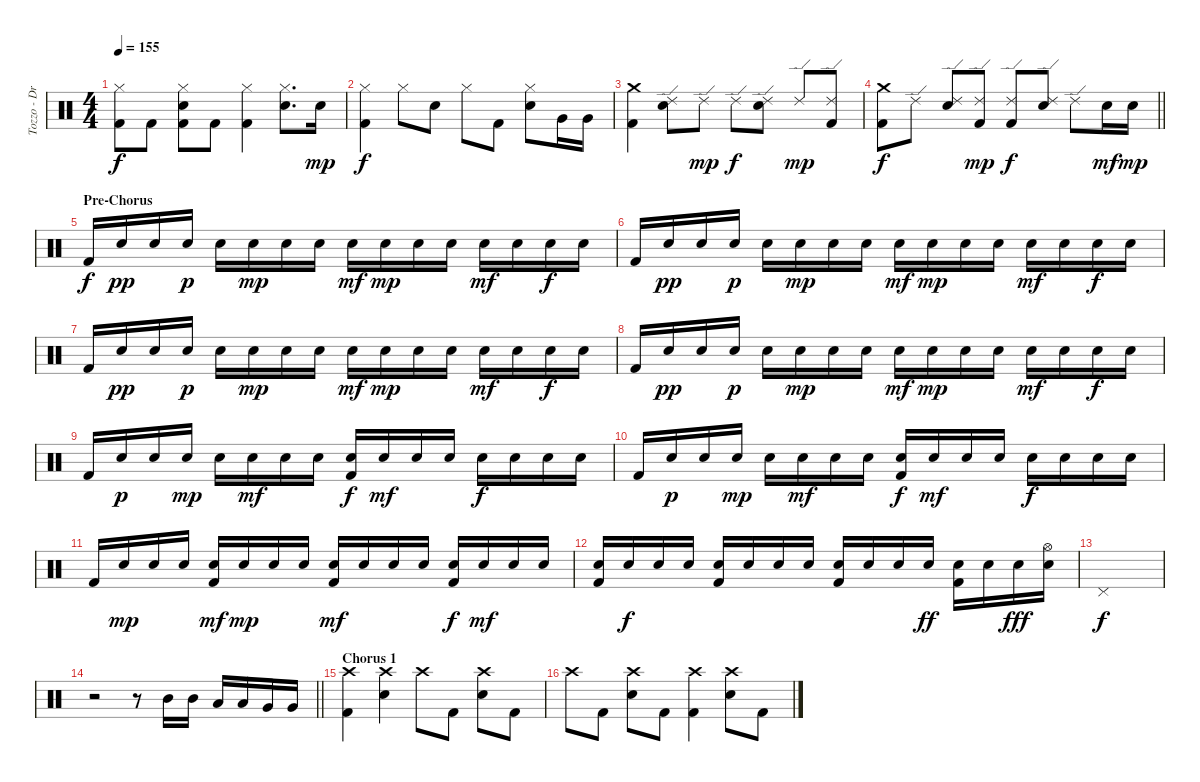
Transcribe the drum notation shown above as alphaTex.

\track ("Tozzo - Drums" "Tozzo - Dr") {instrument percussion}
\staff {score}
\articulation defaults
\ts (4 4)
\tempo 155
\clef neutral
\ks c
("Hi-Hat (closed)" "Kick (hit) 2").8{dy f} "Kick (hit) 2".8 ("Hi-Hat (closed)" "Snare (hit) 2" "Kick (hit) 2").8 "Kick (hit) 2".8 ("Hi-Hat (closed)" "Kick (hit) 2").4 ("Hi-Hat (closed)" "Snare (hit) 2").8{d} "Snare (hit) 2".16{dy mp} |
("Hi-Hat (closed)" "Kick (hit) 2").4{dy f} "Hi-Hat (closed)".8 "Snare (hit) 2".8 "Hi-Hat (closed)".8 "Kick (hit) 2".8 ("Hi-Hat (closed)" "Snare (hit) 2").8 "Very Low Tom (hit)".16 "Very Low Tom (hit)".16 |
("Crash medium (hit)" "Kick (hit) 2").4 ("Ride (edge) 2" "Snare (hit) 2").8 "Ride (edge) 2".8{dy mp} "Ride (edge) 2".8{dy f} ("Ride (edge) 2" "Snare (hit) 2").8 "Ride (edge) 2".8{dy mp} ("Ride (edge) 2" "Kick (hit) 2").8 |
\barLineRight lightlight
("Crash medium (hit)" "Kick (hit) 2").8{dy f} "Ride (edge) 2".8 ("Ride (edge) 2" "Snare (hit) 2").8 ("Ride (edge) 2" "Kick (hit) 2").8{dy mp} ("Ride (edge) 2" "Kick (hit) 2").8{dy f} ("Ride (edge) 2" "Snare (hit) 2").8 "Ride (edge) 2".8 "Snare (hit) 2".16{dy mf} "Snare (hit) 2".16{dy mp} |
\section ("" "Pre-Chorus")
"Kick (hit) 2".16{dy f} "Snare (hit) 2".16{dy pp} "Snare (hit) 2".16 "Snare (hit) 2".16{dy p} "Snare (hit) 2".16 "Snare (hit) 2".16{dy mp} "Snare (hit) 2".16 "Snare (hit) 2".16 "Snare (hit) 2".16{dy mf} "Snare (hit) 2".16{dy mp} "Snare (hit) 2".16 "Snare (hit) 2".16 "Snare (hit) 2".16{dy mf} "Snare (hit) 2".16 "Snare (hit) 2".16{dy f} "Snare (hit) 2".16 |
"Kick (hit) 2".16 "Snare (hit) 2".16{dy pp} "Snare (hit) 2".16 "Snare (hit) 2".16{dy p} "Snare (hit) 2".16 "Snare (hit) 2".16{dy mp} "Snare (hit) 2".16 "Snare (hit) 2".16 "Snare (hit) 2".16{dy mf} "Snare (hit) 2".16{dy mp} "Snare (hit) 2".16 "Snare (hit) 2".16 "Snare (hit) 2".16{dy mf} "Snare (hit) 2".16 "Snare (hit) 2".16{dy f} "Snare (hit) 2".16 |
"Kick (hit) 2".16 "Snare (hit) 2".16{dy pp} "Snare (hit) 2".16 "Snare (hit) 2".16{dy p} "Snare (hit) 2".16 "Snare (hit) 2".16{dy mp} "Snare (hit) 2".16 "Snare (hit) 2".16 "Snare (hit) 2".16{dy mf} "Snare (hit) 2".16{dy mp} "Snare (hit) 2".16 "Snare (hit) 2".16 "Snare (hit) 2".16{dy mf} "Snare (hit) 2".16 "Snare (hit) 2".16{dy f} "Snare (hit) 2".16 |
"Kick (hit) 2".16 "Snare (hit) 2".16{dy pp} "Snare (hit) 2".16 "Snare (hit) 2".16{dy p} "Snare (hit) 2".16 "Snare (hit) 2".16{dy mp} "Snare (hit) 2".16 "Snare (hit) 2".16 "Snare (hit) 2".16{dy mf} "Snare (hit) 2".16{dy mp} "Snare (hit) 2".16 "Snare (hit) 2".16 "Snare (hit) 2".16{dy mf} "Snare (hit) 2".16 "Snare (hit) 2".16{dy f} "Snare (hit) 2".16 |
"Kick (hit) 2".16 "Snare (hit) 2".16{dy p} "Snare (hit) 2".16 "Snare (hit) 2".16{dy mp} "Snare (hit) 2".16 "Snare (hit) 2".16{dy mf} "Snare (hit) 2".16 "Snare (hit) 2".16 ("Snare (hit) 2" "Kick (hit) 2").16{dy f} "Snare (hit) 2".16{dy mf} "Snare (hit) 2".16 "Snare (hit) 2".16 "Snare (hit) 2".16{dy f} "Snare (hit) 2".16 "Snare (hit) 2".16 "Snare (hit) 2".16 |
"Kick (hit) 2".16 "Snare (hit) 2".16{dy p} "Snare (hit) 2".16 "Snare (hit) 2".16{dy mp} "Snare (hit) 2".16 "Snare (hit) 2".16{dy mf} "Snare (hit) 2".16 "Snare (hit) 2".16 ("Snare (hit) 2" "Kick (hit) 2").16{dy f} "Snare (hit) 2".16{dy mf} "Snare (hit) 2".16 "Snare (hit) 2".16 "Snare (hit) 2".16{dy f} "Snare (hit) 2".16 "Snare (hit) 2".16 "Snare (hit) 2".16 |
"Kick (hit) 2".16 "Snare (hit) 2".16{dy mp} "Snare (hit) 2".16 "Snare (hit) 2".16 ("Snare (hit) 2" "Kick (hit) 2").16{dy mf} "Snare (hit) 2".16{dy mp} "Snare (hit) 2".16 "Snare (hit) 2".16 ("Snare (hit) 2" "Kick (hit) 2").16{dy mf} "Snare (hit) 2".16 "Snare (hit) 2".16 "Snare (hit) 2".16 ("Snare (hit) 2" "Kick (hit) 2").16{dy f} "Snare (hit) 2".16{dy mf} "Snare (hit) 2".16 "Snare (hit) 2".16 |
("Snare (hit) 2" "Kick (hit) 2").16 "Snare (hit) 2".16{dy f} "Snare (hit) 2".16 "Snare (hit) 2".16 ("Snare (hit) 2" "Kick (hit) 2").16 "Snare (hit) 2".16 "Snare (hit) 2".16 "Snare (hit) 2".16 ("Snare (hit) 2" "Kick (hit) 2").16 "Snare (hit) 2".16 "Snare (hit) 2".16 "Snare (hit) 2".16{dy ff} ("Snare (hit) 2" "Kick (hit) 2").16 "Snare (hit) 2".16 "Snare (hit) 2".16{dy fff} ("Hi-Hat (open)" "Snare (hit) 2").16 |
"Pedal Hi-Hat (hit)".1{dy f} |
\barLineRight lightlight
r.2 r.8 "Mid Tom (hit)".16 "Mid Tom (hit)".16 "Low Tom (hit)".16 "Low Tom (hit)".16 "Very Low Tom (hit)".16 "Very Low Tom (hit)".16 |
\section ("" "Chorus 1")
("Crash high (hit)" "Kick (hit) 2").4 ("Crash high (hit)" "Snare (hit) 2").4 "Crash high (hit)".8 "Kick (hit) 2".8 ("Crash high (hit)" "Snare (hit) 2").8 "Kick (hit) 2".8 |
"Crash high (hit)".8 "Kick (hit) 2".8 ("Crash high (hit)" "Snare (hit) 2").8 "Kick (hit) 2".8 ("Crash high (hit)" "Kick (hit) 2").4 ("Crash high (hit)" "Snare (hit) 2").8 "Kick (hit) 2".8
